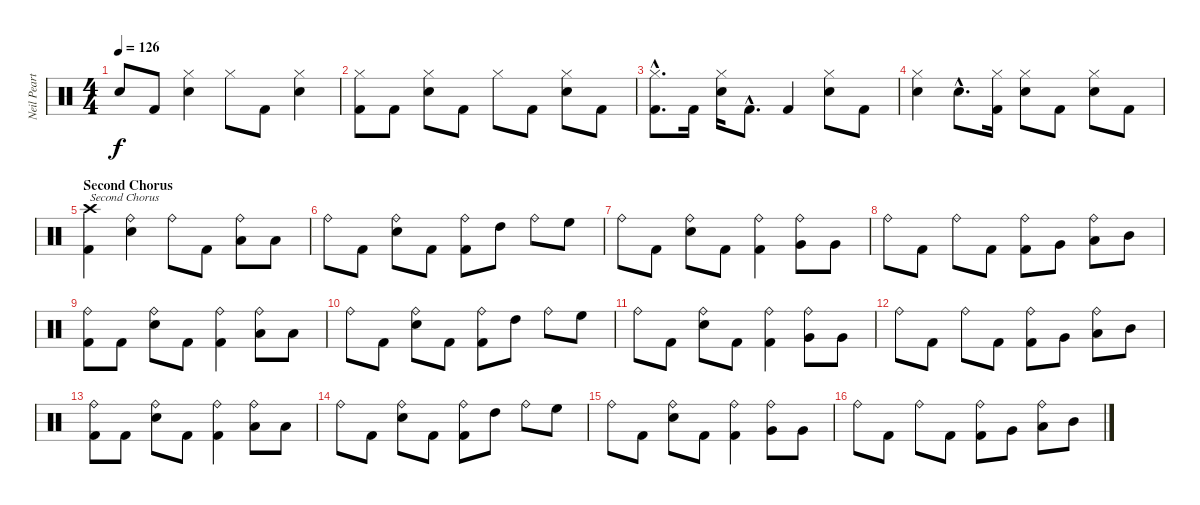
\track ("Neil Peart" "Neil Peart") {instrument percussion}
\staff {score}
\articulation defaults
\ts (4 4)
\tempo 126
\clef neutral
\ks c "Electric Snare (hit)".8{dy f} "Kick (hit) 2".8
("Electric Snare (hit)" "Hi-Hat (closed)").4 "Hi-Hat (closed)".8 "Kick (hit) 2".8 ("Electric Snare (hit)" "Hi-Hat (closed)").4 |
("Hi-Hat (closed)" "Kick (hit) 2").8 "Kick (hit) 2".8 ("Electric Snare (hit)" "Hi-Hat (closed)").8 "Kick (hit) 2".8 "Hi-Hat (closed)".8 "Kick (hit) 2".8 ("Electric Snare (hit)" "Hi-Hat (closed)").8 "Kick (hit) 2".8 |
("Hi-Hat (closed)"{hac} "Kick (hit) 2"{hac}).8{d} "Kick (hit) 2".16 ("Electric Snare (hit)" "Hi-Hat (closed)").16 "Kick (hit) 2"{hac}.8{d} "Kick (hit) 2".4 ("Electric Snare (hit)" "Hi-Hat (closed)").8 "Kick (hit) 2".8 |
("Electric Snare (hit)" "Hi-Hat (closed)").4 "Electric Snare (hit)"{hac}.8{d} ("Hi-Hat (closed)" "Kick (hit) 2").16 ("Electric Snare (hit)" "Hi-Hat (closed)").8 "Kick (hit) 2".8 ("Electric Snare (hit)" "Hi-Hat (closed)").8 "Kick (hit) 2".8 |
\section ("" "Second Chorus")
("Crash high (hit)" "Kick (hit) 2").4{txt "Second Chorus"} ("Electric Snare (hit)" "Ride (bell)").4 "Ride (bell)".8 "Kick (hit) 2".8 ("Ride (bell)" "Low Floor Tom (hit)").8 "Low Floor Tom (hit)".8 |
"Ride (bell)".8 "Kick (hit) 2".8 ("Electric Snare (hit)" "Ride (bell)").8 "Kick (hit) 2".8 ("Ride (bell)" "Kick (hit) 2").8 "High Tom (hit)".8 "Ride (bell)".8 "High Floor Tom (hit)".8 |
"Ride (bell)".8 "Kick (hit) 2".8 ("Electric Snare (hit)" "Ride (bell)").8 "Kick (hit) 2".8 ("Ride (bell)" "Kick (hit) 2").4 ("Ride (bell)" "Very Low Tom (hit)").8 "Very Low Tom (hit)".8 |
"Ride (bell)".8 "Kick (hit) 2".8 "Ride (bell)".8 "Kick (hit) 2".8 ("Ride (bell)" "Kick (hit) 2").8 "Very Low Tom (hit)".8 ("Ride (bell)" "Low Tom (hit)").8 "Mid Tom (hit)".8 |
("Ride (bell)" "Kick (hit) 2").8 "Kick (hit) 2".8 ("Electric Snare (hit)" "Ride (bell)").8 "Kick (hit) 2".8 ("Ride (bell)" "Kick (hit) 2").4 ("Ride (bell)" "Low Floor Tom (hit)").8 "Low Floor Tom (hit)".8 |
"Ride (bell)".8 "Kick (hit) 2".8 ("Electric Snare (hit)" "Ride (bell)").8 "Kick (hit) 2".8 ("Ride (bell)" "Kick (hit) 2").8 "High Tom (hit)".8 "Ride (bell)".8 "High Floor Tom (hit)".8 |
"Ride (bell)".8 "Kick (hit) 2".8 ("Electric Snare (hit)" "Ride (bell)").8 "Kick (hit) 2".8 ("Ride (bell)" "Kick (hit) 2").4 ("Ride (bell)" "Very Low Tom (hit)").8 "Very Low Tom (hit)".8 |
"Ride (bell)".8 "Kick (hit) 2".8 "Ride (bell)".8 "Kick (hit) 2".8 ("Ride (bell)" "Kick (hit) 2").8 "Very Low Tom (hit)".8 ("Ride (bell)" "Low Tom (hit)").8 "Mid Tom (hit)".8 |
("Ride (bell)" "Kick (hit) 2").8 "Kick (hit) 2".8 ("Electric Snare (hit)" "Ride (bell)").8 "Kick (hit) 2".8 ("Ride (bell)" "Kick (hit) 2").4 ("Ride (bell)" "Low Floor Tom (hit)").8 "Low Floor Tom (hit)".8 |
"Ride (bell)".8 "Kick (hit) 2".8 ("Electric Snare (hit)" "Ride (bell)").8 "Kick (hit) 2".8 ("Ride (bell)" "Kick (hit) 2").8 "High Tom (hit)".8 "Ride (bell)".8 "High Floor Tom (hit)".8 |
"Ride (bell)".8 "Kick (hit) 2".8 ("Electric Snare (hit)" "Ride (bell)").8 "Kick (hit) 2".8 ("Ride (bell)" "Kick (hit) 2").4 ("Ride (bell)" "Very Low Tom (hit)").8 "Very Low Tom (hit)".8 |
"Ride (bell)".8 "Kick (hit) 2".8 "Ride (bell)".8 "Kick (hit) 2".8 ("Ride (bell)" "Kick (hit) 2").8 "Very Low Tom (hit)".8 ("Ride (bell)" "Low Tom (hit)").8 "Mid Tom (hit)".8
